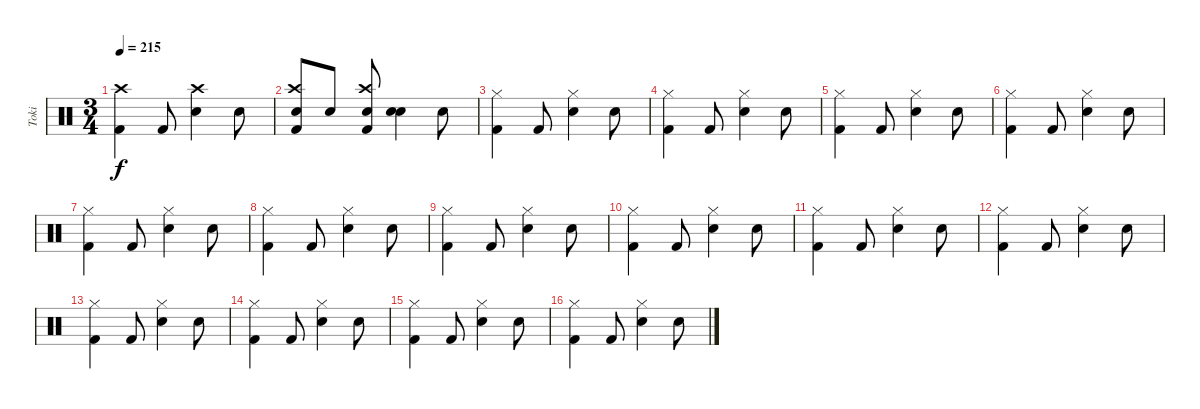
\track ("Toki" "Toki") {instrument percussion}
\staff {score}
\articulation defaults
\ts (3 4)
\tempo 215
\clef neutral
\ks c
("Kick (hit) 2" "Crash high (hit)").4{dy f} "Kick (hit) 2".8 ("Crash high (hit)" "Snare (hit) 2").4 "Snare (hit) 2".8 |
("Kick (hit) 2" "Crash high (hit)" "Snare (hit) 2").8 "Snare (hit) 2".8 ("Kick (hit) 2" "Crash high (hit)" "Snare (hit) 2").8 ("Snare (hit) 2" "Snare (hit) 2").4 "Snare (hit) 2".8 |
("Kick (hit) 2" "Hi-Hat (closed)").4 "Kick (hit) 2".8 ("Hi-Hat (closed)" "Snare (hit) 2").4 "Snare (hit) 2".8 |
("Kick (hit) 2" "Hi-Hat (closed)").4 "Kick (hit) 2".8 ("Hi-Hat (closed)" "Snare (hit) 2").4 "Snare (hit) 2".8 |
("Kick (hit) 2" "Hi-Hat (closed)").4 "Kick (hit) 2".8 ("Hi-Hat (closed)" "Snare (hit) 2").4 "Snare (hit) 2".8 |
("Kick (hit) 2" "Hi-Hat (closed)").4 "Kick (hit) 2".8 ("Hi-Hat (closed)" "Snare (hit) 2").4 "Snare (hit) 2".8 |
("Kick (hit) 2" "Hi-Hat (closed)").4 "Kick (hit) 2".8 ("Hi-Hat (closed)" "Snare (hit) 2").4 "Snare (hit) 2".8 |
("Kick (hit) 2" "Hi-Hat (closed)").4 "Kick (hit) 2".8 ("Hi-Hat (closed)" "Snare (hit) 2").4 "Snare (hit) 2".8 |
("Kick (hit) 2" "Hi-Hat (closed)").4 "Kick (hit) 2".8 ("Hi-Hat (closed)" "Snare (hit) 2").4 "Snare (hit) 2".8 |
("Kick (hit) 2" "Hi-Hat (closed)").4 "Kick (hit) 2".8 ("Hi-Hat (closed)" "Snare (hit) 2").4 "Snare (hit) 2".8 |
("Kick (hit) 2" "Hi-Hat (closed)").4 "Kick (hit) 2".8 ("Hi-Hat (closed)" "Snare (hit) 2").4 "Snare (hit) 2".8 |
("Kick (hit) 2" "Hi-Hat (closed)").4 "Kick (hit) 2".8 ("Hi-Hat (closed)" "Snare (hit) 2").4 "Snare (hit) 2".8 |
("Kick (hit) 2" "Hi-Hat (closed)").4 "Kick (hit) 2".8 ("Hi-Hat (closed)" "Snare (hit) 2").4 "Snare (hit) 2".8 |
("Kick (hit) 2" "Hi-Hat (closed)").4 "Kick (hit) 2".8 ("Hi-Hat (closed)" "Snare (hit) 2").4 "Snare (hit) 2".8 |
("Kick (hit) 2" "Hi-Hat (closed)").4 "Kick (hit) 2".8 ("Hi-Hat (closed)" "Snare (hit) 2").4 "Snare (hit) 2".8 |
("Kick (hit) 2" "Hi-Hat (closed)").4 "Kick (hit) 2".8 ("Hi-Hat (closed)" "Snare (hit) 2").4 "Snare (hit) 2".8
